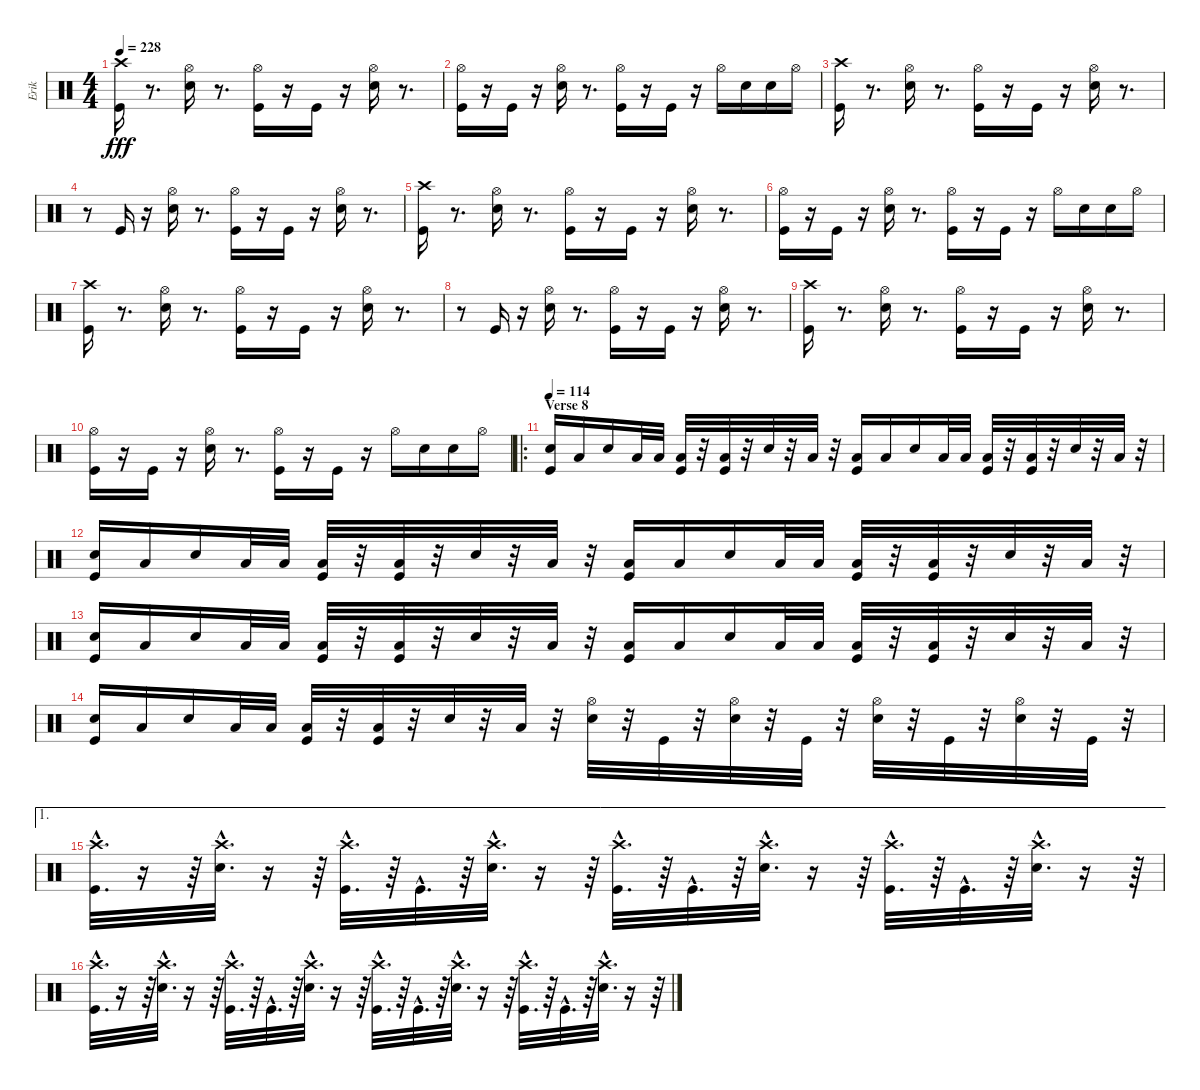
\track ("Erik" "Erik") {instrument percussion}
\staff {score}
\articulation defaults
\ts (4 4)
\tempo 228
\clef neutral
\ks c
("Kick (hit)" "Crash high (hit)").16{dy fff} r.8{d} ("Electric Snare (hit)" "Hi-Hat (open)").16 r.8{d} ("Kick (hit)" "Hi-Hat (open)").16 r.16 "Kick (hit)".16 r.16 ("Electric Snare (hit)" "Hi-Hat (open)").16 r.8{d} |
("Kick (hit)" "Hi-Hat (open)").16 r.16 "Kick (hit)".16 r.16 ("Hi-Hat (open)" "Electric Snare (hit)").16 r.8{d} ("Kick (hit)" "Hi-Hat (open)").16 r.16 "Kick (hit)".16 r.16 "Hi-Hat (open)".16 "Electric Snare (hit)".16 "Electric Snare (hit)".16 "Hi-Hat (open)".16 |
("Kick (hit)" "Crash high (hit)").16 r.8{d} ("Electric Snare (hit)" "Hi-Hat (open)").16 r.8{d} ("Kick (hit)" "Hi-Hat (open)").16 r.16 "Kick (hit)".16 r.16 ("Electric Snare (hit)" "Hi-Hat (open)").16 r.8{d} |
r.8 "Kick (hit)".16 r.16 ("Hi-Hat (open)" "Electric Snare (hit)").16 r.8{d} ("Kick (hit)" "Hi-Hat (open)").16 r.16 "Kick (hit)".16 r.16 ("Electric Snare (hit)" "Hi-Hat (open)").16 r.8{d} |
("Kick (hit)" "Crash high (hit)").16 r.8{d} ("Electric Snare (hit)" "Hi-Hat (open)").16 r.8{d} ("Kick (hit)" "Hi-Hat (open)").16 r.16 "Kick (hit)".16 r.16 ("Electric Snare (hit)" "Hi-Hat (open)").16 r.8{d} |
("Kick (hit)" "Hi-Hat (open)").16 r.16 "Kick (hit)".16 r.16 ("Hi-Hat (open)" "Electric Snare (hit)").16 r.8{d} ("Kick (hit)" "Hi-Hat (open)").16 r.16 "Kick (hit)".16 r.16 "Hi-Hat (open)".16 "Electric Snare (hit)".16 "Electric Snare (hit)".16 "Hi-Hat (open)".16 |
("Kick (hit)" "Crash high (hit)").16 r.8{d} ("Electric Snare (hit)" "Hi-Hat (open)").16 r.8{d} ("Kick (hit)" "Hi-Hat (open)").16 r.16 "Kick (hit)".16 r.16 ("Electric Snare (hit)" "Hi-Hat (open)").16 r.8{d} |
r.8 "Kick (hit)".16 r.16 ("Hi-Hat (open)" "Electric Snare (hit)").16 r.8{d} ("Kick (hit)" "Hi-Hat (open)").16 r.16 "Kick (hit)".16 r.16 ("Electric Snare (hit)" "Hi-Hat (open)").16 r.8{d} |
("Kick (hit)" "Crash high (hit)").16 r.8{d} ("Electric Snare (hit)" "Hi-Hat (open)").16 r.8{d} ("Kick (hit)" "Hi-Hat (open)").16 r.16 "Kick (hit)".16 r.16 ("Electric Snare (hit)" "Hi-Hat (open)").16 r.8{d} |
("Kick (hit)" "Hi-Hat (open)").16 r.16 "Kick (hit)".16 r.16 ("Hi-Hat (open)" "Electric Snare (hit)").16 r.8{d} ("Kick (hit)" "Hi-Hat (open)").16 r.16 "Kick (hit)".16 r.16 "Hi-Hat (open)".16 "Electric Snare (hit)".16 "Electric Snare (hit)".16 "Hi-Hat (open)".16 |
\ro
\section ("" "Verse 8")
\tempo 114
("Kick (hit)" "Electric Snare (hit)").16 "Low Floor Tom (hit)".16 "Electric Snare (hit)".16 "Low Tom (hit)".32 "Low Tom (hit)".32 ("Kick (hit)" "Low Floor Tom (hit)").32 r.32 ("Kick (hit)" "Low Floor Tom (hit)").32 r.32 "Electric Snare (hit)".32 r.32 "Low Tom (hit)".32 r.32 ("Kick (hit)" "Low Floor Tom (hit)").16 "Low Floor Tom (hit)".16 "Electric Snare (hit)".16 "Low Tom (hit)".32 "Low Tom (hit)".32 ("Kick (hit)" "Low Floor Tom (hit)").32 r.32 ("Kick (hit)" "Low Floor Tom (hit)").32 r.32 "Electric Snare (hit)".32 r.32 "Low Tom (hit)".32 r.32 |
("Kick (hit)" "Electric Snare (hit)").16 "Low Floor Tom (hit)".16 "Electric Snare (hit)".16 "Low Tom (hit)".32 "Low Tom (hit)".32 ("Kick (hit)" "Low Floor Tom (hit)").32 r.32 ("Kick (hit)" "Low Floor Tom (hit)").32 r.32 "Electric Snare (hit)".32 r.32 "Low Tom (hit)".32 r.32 ("Kick (hit)" "Low Floor Tom (hit)").16 "Low Floor Tom (hit)".16 "Electric Snare (hit)".16 "Low Tom (hit)".32 "Low Tom (hit)".32 ("Kick (hit)" "Low Floor Tom (hit)").32 r.32 ("Kick (hit)" "Low Floor Tom (hit)").32 r.32 "Electric Snare (hit)".32 r.32 "Low Tom (hit)".32 r.32 |
("Kick (hit)" "Electric Snare (hit)").16 "Low Floor Tom (hit)".16 "Electric Snare (hit)".16 "Low Tom (hit)".32 "Low Tom (hit)".32 ("Kick (hit)" "Low Floor Tom (hit)").32 r.32 ("Kick (hit)" "Low Floor Tom (hit)").32 r.32 "Electric Snare (hit)".32 r.32 "Low Tom (hit)".32 r.32 ("Kick (hit)" "Low Floor Tom (hit)").16 "Low Floor Tom (hit)".16 "Electric Snare (hit)".16 "Low Tom (hit)".32 "Low Tom (hit)".32 ("Kick (hit)" "Low Floor Tom (hit)").32 r.32 ("Kick (hit)" "Low Floor Tom (hit)").32 r.32 "Electric Snare (hit)".32 r.32 "Low Tom (hit)".32 r.32 |
("Kick (hit)" "Electric Snare (hit)").16 "Low Floor Tom (hit)".16 "Electric Snare (hit)".16 "Low Tom (hit)".32 "Low Tom (hit)".32 ("Kick (hit)" "Low Floor Tom (hit)").32 r.32 ("Kick (hit)" "Low Floor Tom (hit)").32 r.32 "Electric Snare (hit)".32 r.32 "Low Tom (hit)".32 r.32 ("Electric Snare (hit)" "Hi-Hat (open)").32 r.32 "Kick (hit)".32 r.32 ("Electric Snare (hit)" "Hi-Hat (open)").32 r.32 "Kick (hit)".32 r.32 ("Electric Snare (hit)" "Hi-Hat (open)").32 r.32 "Kick (hit)".32 r.32 ("Electric Snare (hit)" "Hi-Hat (open)").32 r.32 "Kick (hit)".32 r.32 |
\ae 1
("Kick (hit)"{hac} "Crash high (hit)"{hac}).32{d} r.16 r.64 ("Electric Snare (hit)"{hac} "Crash high (hit)"{hac}).32{d} r.16 r.64 ("Kick (hit)"{hac} "Crash high (hit)"{hac}).32{d} r.64 "Kick (hit)"{hac}.32{d} r.64 ("Electric Snare (hit)"{hac} "Crash high (hit)"{hac}).32{d} r.16 r.64 ("Crash high (hit)"{hac} "Kick (hit)"{hac}).32{d} r.64 "Kick (hit)"{hac}.32{d} r.64 ("Crash high (hit)"{hac} "Electric Snare (hit)"{hac}).32{d} r.16 r.64 ("Crash high (hit)"{hac} "Kick (hit)"{hac}).32{d} r.64 "Kick (hit)"{hac}.32{d} r.64 ("Crash high (hit)"{hac} "Electric Snare (hit)"{hac}).32{d} r.16 r.64 |
("Kick (hit)"{hac} "Crash high (hit)"{hac}).32{d} r.16 r.64 ("Electric Snare (hit)"{hac} "Crash high (hit)"{hac}).32{d} r.16 r.64 ("Kick (hit)"{hac} "Crash high (hit)"{hac}).32{d} r.64 "Kick (hit)"{hac}.32{d} r.64 ("Electric Snare (hit)"{hac} "Crash high (hit)"{hac}).32{d} r.16 r.64 ("Crash high (hit)"{hac} "Kick (hit)"{hac}).32{d} r.64 "Kick (hit)"{hac}.32{d} r.64 ("Crash high (hit)"{hac} "Electric Snare (hit)"{hac}).32{d} r.16 r.64 ("Crash high (hit)"{hac} "Kick (hit)"{hac}).32{d} r.64 "Kick (hit)"{hac}.32{d} r.64 ("Crash high (hit)"{hac} "Electric Snare (hit)"{hac}).32{d} r.16 r.64
